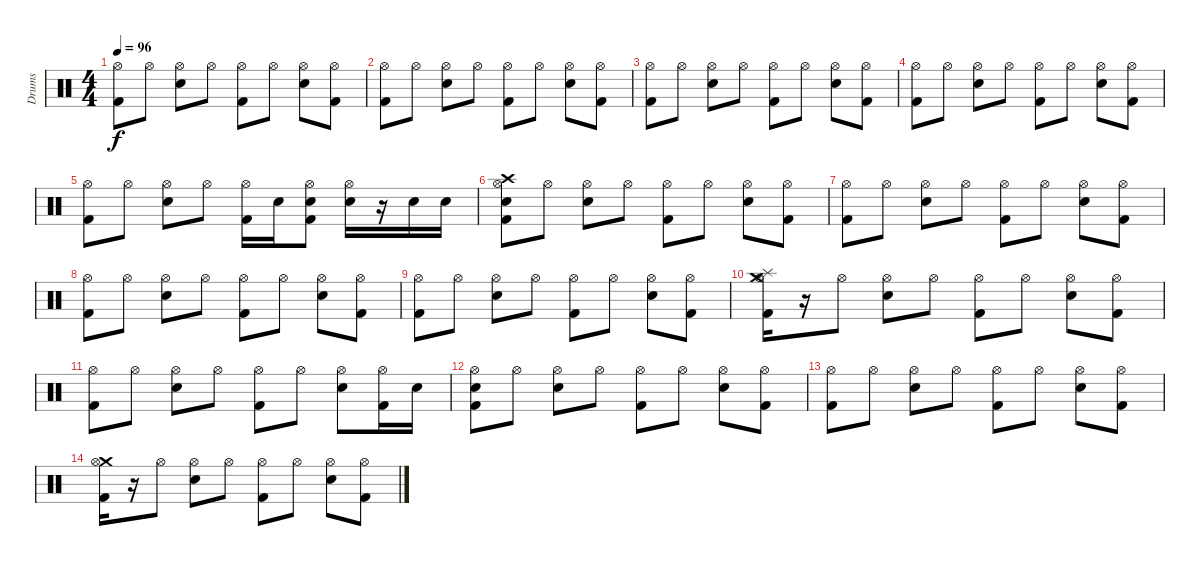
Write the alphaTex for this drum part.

\track ("Drums" "Drums") {instrument percussion}
\staff {score}
\articulation defaults
\ts (4 4)
\tempo 96
\clef neutral
\ks c
("Hi-Hat (open)" "Kick (hit) 2").8{dy f} "Hi-Hat (open)".8 ("Hi-Hat (open)" "Snare (hit) 2").8 "Hi-Hat (open)".8 ("Hi-Hat (open)" "Kick (hit) 2").8 "Hi-Hat (open)".8 ("Hi-Hat (open)" "Snare (hit) 2").8 ("Hi-Hat (open)" "Kick (hit) 2").8 |
("Hi-Hat (open)" "Kick (hit) 2").8 "Hi-Hat (open)".8 ("Hi-Hat (open)" "Snare (hit) 2").8 "Hi-Hat (open)".8 ("Hi-Hat (open)" "Kick (hit) 2").8 "Hi-Hat (open)".8 ("Hi-Hat (open)" "Snare (hit) 2").8 ("Hi-Hat (open)" "Kick (hit) 2").8 |
("Hi-Hat (open)" "Kick (hit) 2").8 "Hi-Hat (open)".8 ("Hi-Hat (open)" "Snare (hit) 2").8 "Hi-Hat (open)".8 ("Hi-Hat (open)" "Kick (hit) 2").8 "Hi-Hat (open)".8 ("Hi-Hat (open)" "Snare (hit) 2").8 ("Hi-Hat (open)" "Kick (hit) 2").8 |
("Hi-Hat (open)" "Kick (hit) 2").8 "Hi-Hat (open)".8 ("Hi-Hat (open)" "Snare (hit) 2").8 "Hi-Hat (open)".8 ("Hi-Hat (open)" "Kick (hit) 2").8 "Hi-Hat (open)".8 ("Hi-Hat (open)" "Snare (hit) 2").8 ("Hi-Hat (open)" "Kick (hit) 2").8 |
("Hi-Hat (open)" "Kick (hit) 2").8 "Hi-Hat (open)".8 ("Hi-Hat (open)" "Snare (hit) 2").8 "Hi-Hat (open)".8 ("Hi-Hat (open)" "Kick (hit) 2").16 "Snare (hit) 2".16 ("Snare (hit)" "Kick (hit) 2" "Hi-Hat (open)").8 ("Snare (hit) 2" "Hi-Hat (open)").16 r.16 "Snare (hit) 2".16 "Snare (hit) 2".16 |
("Snare (hit)" "Crash high (hit)" "Hi-Hat (open)" "Kick (hit) 2").8 "Hi-Hat (open)".8 ("Hi-Hat (open)" "Snare (hit) 2").8 "Hi-Hat (open)".8 ("Hi-Hat (open)" "Kick (hit) 2").8 "Hi-Hat (open)".8 ("Hi-Hat (open)" "Snare (hit) 2").8 ("Hi-Hat (open)" "Kick (hit) 2").8 |
("Hi-Hat (open)" "Kick (hit) 2").8 "Hi-Hat (open)".8 ("Hi-Hat (open)" "Snare (hit) 2").8 "Hi-Hat (open)".8 ("Hi-Hat (open)" "Kick (hit) 2").8 "Hi-Hat (open)".8 ("Hi-Hat (open)" "Snare (hit) 2").8 ("Hi-Hat (open)" "Kick (hit) 2").8 |
("Hi-Hat (open)" "Kick (hit) 2").8 "Hi-Hat (open)".8 ("Hi-Hat (open)" "Snare (hit) 2").8 "Hi-Hat (open)".8 ("Hi-Hat (open)" "Kick (hit) 2").8 "Hi-Hat (open)".8 ("Hi-Hat (open)" "Snare (hit) 2").8 ("Hi-Hat (open)" "Kick (hit) 2").8 |
("Hi-Hat (open)" "Kick (hit) 2").8 "Hi-Hat (open)".8 ("Hi-Hat (open)" "Snare (hit) 2").8 "Hi-Hat (open)".8 ("Hi-Hat (open)" "Kick (hit) 2").8 "Hi-Hat (open)".8 ("Hi-Hat (open)" "Snare (hit) 2").8 ("Hi-Hat (open)" "Kick (hit) 2").8 |
("Crash medium (hit)" "Splash (hit)" "Hi-Hat (open)" "Kick (hit) 2").16 r.16 "Hi-Hat (open)".8 ("Hi-Hat (open)" "Snare (hit) 2").8 "Hi-Hat (open)".8 ("Hi-Hat (open)" "Kick (hit) 2").8 "Hi-Hat (open)".8 ("Hi-Hat (open)" "Snare (hit) 2").8 ("Hi-Hat (open)" "Kick (hit) 2").8 |
("Hi-Hat (open)" "Kick (hit) 2").8 "Hi-Hat (open)".8 ("Hi-Hat (open)" "Snare (hit) 2").8 "Hi-Hat (open)".8 ("Hi-Hat (open)" "Kick (hit) 2").8 "Hi-Hat (open)".8 ("Hi-Hat (open)" "Snare (hit) 2").8 ("Hi-Hat (open)" "Kick (hit) 2").16 "Snare (hit) 2".16 |
("Snare (hit)" "Hi-Hat (open)" "Kick (hit) 2").8 "Hi-Hat (open)".8 ("Hi-Hat (open)" "Snare (hit) 2").8 "Hi-Hat (open)".8 ("Hi-Hat (open)" "Kick (hit) 2").8 "Hi-Hat (open)".8 ("Hi-Hat (open)" "Snare (hit) 2").8 ("Hi-Hat (open)" "Kick (hit) 2").8 |
("Hi-Hat (open)" "Kick (hit) 2").8 "Hi-Hat (open)".8 ("Hi-Hat (open)" "Snare (hit) 2").8 "Hi-Hat (open)".8 ("Hi-Hat (open)" "Kick (hit) 2").8 "Hi-Hat (open)".8 ("Hi-Hat (open)" "Snare (hit) 2").8 ("Hi-Hat (open)" "Kick (hit) 2").8 |
("Crash medium (hit)" "Hi-Hat (open)" "Kick (hit) 2").16 r.16 "Hi-Hat (open)".8 ("Hi-Hat (open)" "Snare (hit) 2").8 "Hi-Hat (open)".8 ("Hi-Hat (open)" "Kick (hit) 2").8 "Hi-Hat (open)".8 ("Hi-Hat (open)" "Snare (hit) 2").8 ("Hi-Hat (open)" "Kick (hit) 2").8
